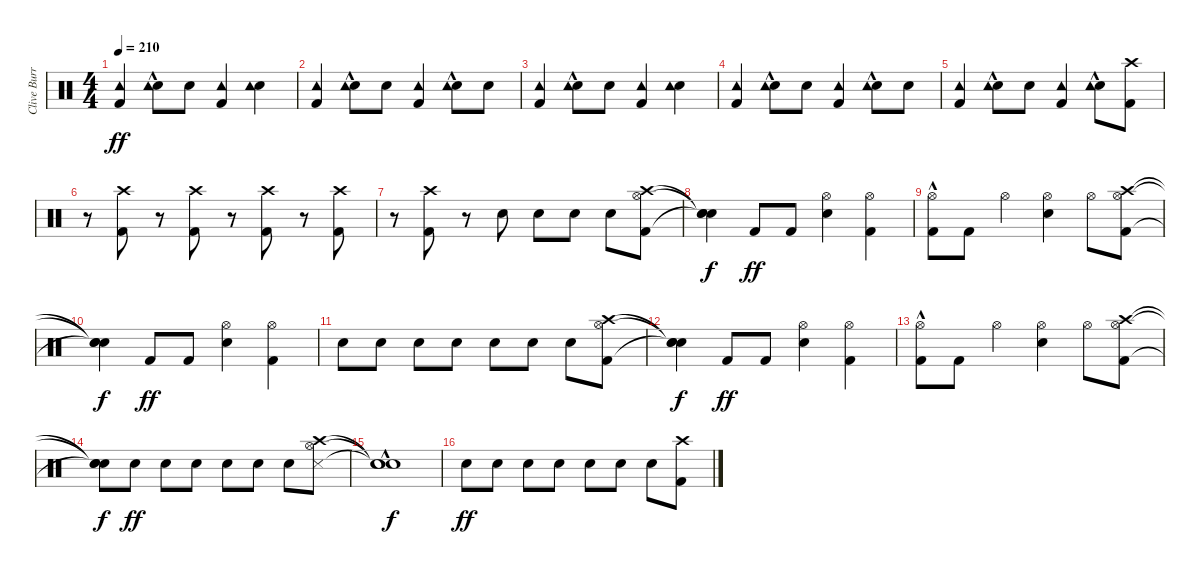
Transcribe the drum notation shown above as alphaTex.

\track ("Clive Burr" "Clive Burr") {instrument percussion}
\staff {score}
\articulation defaults
\ts (4 4)
\tempo 210
\clef neutral
\ks c
("Kick (hit) 2" "Tambourine (hit)").4{dy ff} ("Snare (hit) 2" "Tambourine (hit)"{hac}).8 "Snare (hit) 2".8 ("Kick (hit) 2" "Tambourine (hit)").4 ("Snare (hit) 2" "Tambourine (hit)").4 |
("Kick (hit) 2" "Tambourine (hit)").4 ("Snare (hit) 2" "Tambourine (hit)"{hac}).8 "Snare (hit) 2".8 ("Kick (hit) 2" "Tambourine (hit)").4 ("Snare (hit) 2" "Tambourine (hit)"{hac}).8 "Snare (hit) 2".8 |
("Kick (hit) 2" "Tambourine (hit)").4 ("Snare (hit) 2" "Tambourine (hit)"{hac}).8 "Snare (hit) 2".8 ("Kick (hit) 2" "Tambourine (hit)").4 ("Snare (hit) 2" "Tambourine (hit)").4 |
("Kick (hit) 2" "Tambourine (hit)").4 ("Snare (hit) 2" "Tambourine (hit)"{hac}).8 "Snare (hit) 2".8 ("Kick (hit) 2" "Tambourine (hit)").4 ("Snare (hit) 2" "Tambourine (hit)"{hac}).8 "Snare (hit) 2".8 |
("Kick (hit) 2" "Tambourine (hit)").4 ("Snare (hit) 2" "Tambourine (hit)"{hac}).8 "Snare (hit) 2".8 ("Kick (hit) 2" "Tambourine (hit)").4 ("Snare (hit) 2" "Tambourine (hit)"{hac}).8 ("Kick (hit) 2" "Crash high (hit)").8 |
r.8 ("Kick (hit) 2" "Crash high (hit)").8 r.8 ("Kick (hit) 2" "Crash high (hit)").8 r.8 ("Kick (hit) 2" "Crash high (hit)").8 r.8 ("Kick (hit) 2" "Crash high (hit)").8 |
r.8 ("Kick (hit) 2" "Crash high (hit)").8 r.8 "Snare (hit) 2".8 "Snare (hit) 2".8 "Snare (hit) 2".8 "Snare (hit) 2".8 ("Kick (hit) 2" "Hi-Hat (open)" "Crash high (hit)").8 |
("Snare (hit)"{t} "Snare (hit)"{t} "Snare (hit)"{t}).4{dy f} "Kick (hit) 2".8{dy ff} "Kick (hit) 2".8 ("Snare (hit) 2" "Hi-Hat (open)").4 ("Kick (hit) 2" "Hi-Hat (open)").4 |
("Kick (hit) 2" "Hi-Hat (open)"{hac}).8 "Kick (hit) 2".8 "Hi-Hat (open)".4 ("Snare (hit) 2" "Hi-Hat (open)").4 "Hi-Hat (open)".8 ("Kick (hit) 2" "Hi-Hat (open)" "Crash high (hit)").8 |
("Snare (hit)"{t} "Snare (hit)"{t} "Snare (hit)"{t}).4{dy f} "Kick (hit) 2".8{dy ff} "Kick (hit) 2".8 ("Snare (hit) 2" "Hi-Hat (open)").4 ("Kick (hit) 2" "Hi-Hat (open)").4 |
"Snare (hit) 2".8 "Snare (hit) 2".8 "Snare (hit) 2".8 "Snare (hit) 2".8 "Snare (hit) 2".8 "Snare (hit) 2".8 "Snare (hit) 2".8 ("Kick (hit) 2" "Hi-Hat (open)" "Crash high (hit)").8 |
("Snare (hit)"{t} "Snare (hit)"{t} "Snare (hit)"{t}).4{dy f} "Kick (hit) 2".8{dy ff} "Kick (hit) 2".8 ("Snare (hit) 2" "Hi-Hat (open)").4 ("Kick (hit) 2" "Hi-Hat (open)").4 |
("Kick (hit) 2" "Hi-Hat (open)"{hac}).8 "Kick (hit) 2".8 "Hi-Hat (open)".4 ("Snare (hit) 2" "Hi-Hat (open)").4 "Hi-Hat (open)".8 ("Kick (hit) 2" "Hi-Hat (open)" "Crash high (hit)").8 |
("Snare (hit)"{t} "Snare (hit)"{t} "Snare (hit)"{t}).8{dy f} "Snare (hit) 2".8{dy ff} "Snare (hit) 2".8 "Snare (hit) 2".8 "Snare (hit) 2".8 "Snare (hit) 2".8 "Snare (hit) 2".8 ("Snare (side stick) 3" "Hi-Hat (open)" "Crash high (hit)").8 |
("Snare (hit)"{t} "Snare (hit)"{hac t} "Snare (hit)"{hac t}).1{dy f} |
"Snare (hit) 2".8{dy ff} "Snare (hit) 2".8 "Snare (hit) 2".8 "Snare (hit) 2".8 "Snare (hit) 2".8 "Snare (hit) 2".8 "Snare (hit) 2".8 ("Kick (hit) 2" "Crash high (hit)").8
